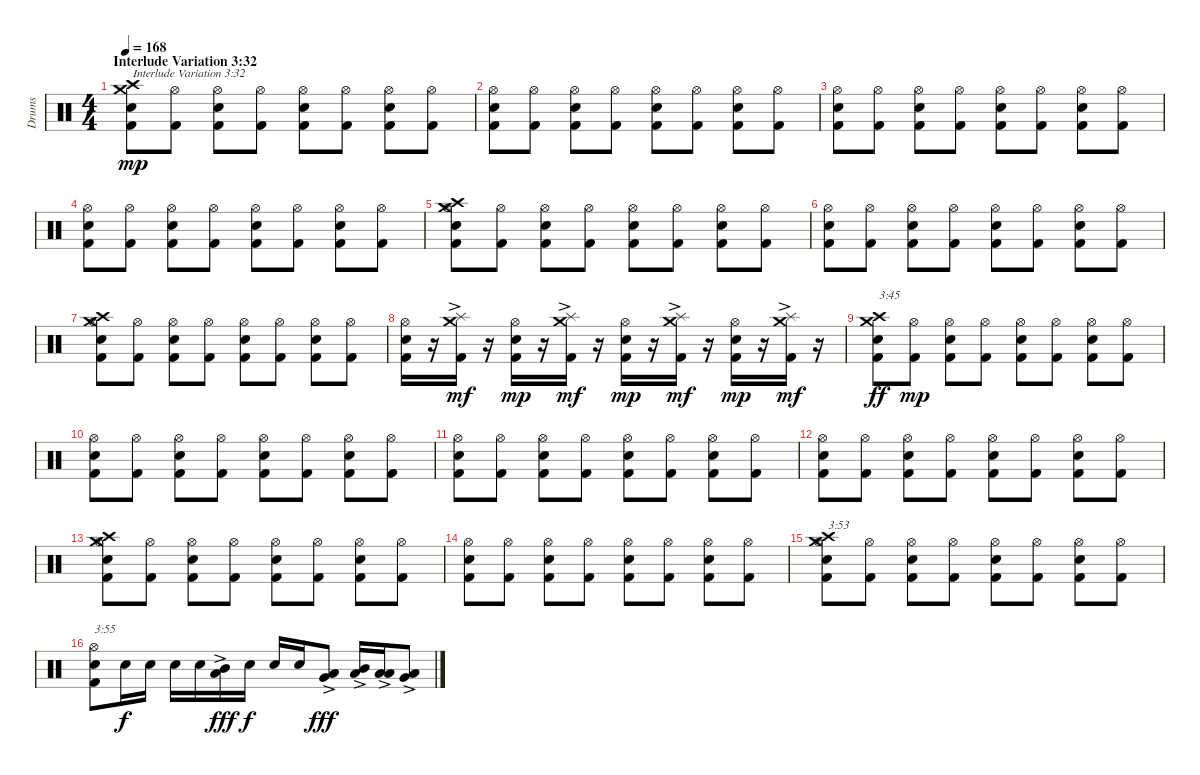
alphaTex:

\track ("Drums" "Drums") {instrument percussion}
\staff {score}
\articulation defaults
\ts (4 4)
\section ("" "Interlude Variation 3:32")
\tempo 168
\clef neutral
\ks c
("Kick (hit) 2" "Electric Snare (hit)" "Crash medium (hit)" "Crash high (hit)").8{txt "Interlude Variation 3:32" dy mp} ("Kick (hit) 2" "Hi-Hat (open)").8 ("Kick (hit) 2" "Electric Snare (hit)" "Hi-Hat (open)").8 ("Kick (hit) 2" "Hi-Hat (open)").8 ("Kick (hit) 2" "Electric Snare (hit)" "Hi-Hat (open)").8 ("Kick (hit) 2" "Hi-Hat (open)").8 ("Kick (hit) 2" "Electric Snare (hit)" "Hi-Hat (open)").8 ("Kick (hit) 2" "Hi-Hat (open)").8 |
("Kick (hit) 2" "Electric Snare (hit)" "Hi-Hat (open)").8 ("Kick (hit) 2" "Hi-Hat (open)").8 ("Kick (hit) 2" "Electric Snare (hit)" "Hi-Hat (open)").8 ("Kick (hit) 2" "Hi-Hat (open)").8 ("Kick (hit) 2" "Electric Snare (hit)" "Hi-Hat (open)").8 ("Kick (hit) 2" "Hi-Hat (open)").8 ("Kick (hit) 2" "Electric Snare (hit)" "Hi-Hat (open)").8 ("Kick (hit) 2" "Hi-Hat (open)").8 |
("Kick (hit) 2" "Electric Snare (hit)" "Hi-Hat (open)").8 ("Kick (hit) 2" "Hi-Hat (open)").8 ("Kick (hit) 2" "Electric Snare (hit)" "Hi-Hat (open)").8 ("Kick (hit) 2" "Hi-Hat (open)").8 ("Kick (hit) 2" "Electric Snare (hit)" "Hi-Hat (open)").8 ("Kick (hit) 2" "Hi-Hat (open)").8 ("Kick (hit) 2" "Electric Snare (hit)" "Hi-Hat (open)").8 ("Kick (hit) 2" "Hi-Hat (open)").8 |
("Kick (hit) 2" "Electric Snare (hit)" "Hi-Hat (open)").8 ("Kick (hit) 2" "Hi-Hat (open)").8 ("Kick (hit) 2" "Electric Snare (hit)" "Hi-Hat (open)").8 ("Kick (hit) 2" "Hi-Hat (open)").8 ("Kick (hit) 2" "Electric Snare (hit)" "Hi-Hat (open)").8 ("Kick (hit) 2" "Hi-Hat (open)").8 ("Kick (hit) 2" "Electric Snare (hit)" "Hi-Hat (open)").8 ("Kick (hit) 2" "Hi-Hat (open)").8 |
("Kick (hit) 2" "Electric Snare (hit)" "Hi-Hat (open)" "Crash medium (hit)" "Crash high (hit)").8 ("Kick (hit) 2" "Hi-Hat (open)").8 ("Kick (hit) 2" "Electric Snare (hit)" "Hi-Hat (open)").8 ("Kick (hit) 2" "Hi-Hat (open)").8 ("Kick (hit) 2" "Electric Snare (hit)" "Hi-Hat (open)").8 ("Kick (hit) 2" "Hi-Hat (open)").8 ("Kick (hit) 2" "Electric Snare (hit)" "Hi-Hat (open)").8 ("Kick (hit) 2" "Hi-Hat (open)").8 |
("Kick (hit) 2" "Electric Snare (hit)" "Hi-Hat (open)").8 ("Kick (hit) 2" "Hi-Hat (open)").8 ("Kick (hit) 2" "Electric Snare (hit)" "Hi-Hat (open)").8 ("Kick (hit) 2" "Hi-Hat (open)").8 ("Kick (hit) 2" "Electric Snare (hit)" "Hi-Hat (open)").8 ("Kick (hit) 2" "Hi-Hat (open)").8 ("Kick (hit) 2" "Electric Snare (hit)" "Hi-Hat (open)").8 ("Kick (hit) 2" "Hi-Hat (open)").8 |
("Kick (hit) 2" "Electric Snare (hit)" "Hi-Hat (open)" "Crash medium (hit)" "Crash high (hit)").8 ("Kick (hit) 2" "Hi-Hat (open)").8 ("Kick (hit) 2" "Electric Snare (hit)" "Hi-Hat (open)").8 ("Kick (hit) 2" "Hi-Hat (open)").8 ("Kick (hit) 2" "Electric Snare (hit)" "Hi-Hat (open)").8 ("Kick (hit) 2" "Hi-Hat (open)").8 ("Kick (hit) 2" "Electric Snare (hit)" "Hi-Hat (open)").8 ("Kick (hit) 2" "Hi-Hat (open)").8 |
("Kick (hit) 2" "Electric Snare (hit)" "Hi-Hat (open)").16 r.16 ("Kick (hit) 2" "Crash medium (hit)" "Splash (hit)"{ac}).16{dy mf} r.16 ("Kick (hit) 2" "Electric Snare (hit)" "Hi-Hat (open)").16{dy mp} r.16 ("Kick (hit) 2" "Crash medium (hit)" "Splash (hit)"{ac}).16{dy mf} r.16 ("Kick (hit) 2" "Electric Snare (hit)" "Hi-Hat (open)").16{dy mp} r.16 ("Kick (hit) 2" "Crash medium (hit)" "Splash (hit)"{ac}).16{dy mf} r.16 ("Kick (hit) 2" "Electric Snare (hit)" "Hi-Hat (open)").16{dy mp} r.16 ("Kick (hit) 2" "Crash medium (hit)" "Splash (hit)"{ac}).16{dy mf} r.16 |
("Kick (hit) 2" "Electric Snare (hit)" "Crash medium (hit)" "Crash high (hit)").8{txt "3:45" dy ff} ("Kick (hit) 2" "Hi-Hat (open)").8{dy mp} ("Kick (hit) 2" "Electric Snare (hit)" "Hi-Hat (open)").8 ("Kick (hit) 2" "Hi-Hat (open)").8 ("Kick (hit) 2" "Electric Snare (hit)" "Hi-Hat (open)").8 ("Kick (hit) 2" "Hi-Hat (open)").8 ("Kick (hit) 2" "Electric Snare (hit)" "Hi-Hat (open)").8 ("Kick (hit) 2" "Hi-Hat (open)").8 |
("Kick (hit) 2" "Electric Snare (hit)" "Hi-Hat (open)").8 ("Kick (hit) 2" "Hi-Hat (open)").8 ("Kick (hit) 2" "Electric Snare (hit)" "Hi-Hat (open)").8 ("Kick (hit) 2" "Hi-Hat (open)").8 ("Kick (hit) 2" "Electric Snare (hit)" "Hi-Hat (open)").8 ("Kick (hit) 2" "Hi-Hat (open)").8 ("Kick (hit) 2" "Electric Snare (hit)" "Hi-Hat (open)").8 ("Kick (hit) 2" "Hi-Hat (open)").8 |
("Kick (hit) 2" "Electric Snare (hit)" "Hi-Hat (open)").8 ("Kick (hit) 2" "Hi-Hat (open)").8 ("Kick (hit) 2" "Electric Snare (hit)" "Hi-Hat (open)").8 ("Kick (hit) 2" "Hi-Hat (open)").8 ("Kick (hit) 2" "Electric Snare (hit)" "Hi-Hat (open)").8 ("Kick (hit) 2" "Hi-Hat (open)").8 ("Kick (hit) 2" "Electric Snare (hit)" "Hi-Hat (open)").8 ("Kick (hit) 2" "Hi-Hat (open)").8 |
("Kick (hit) 2" "Electric Snare (hit)" "Hi-Hat (open)").8 ("Kick (hit) 2" "Hi-Hat (open)").8 ("Kick (hit) 2" "Electric Snare (hit)" "Hi-Hat (open)").8 ("Kick (hit) 2" "Hi-Hat (open)").8 ("Kick (hit) 2" "Electric Snare (hit)" "Hi-Hat (open)").8 ("Kick (hit) 2" "Hi-Hat (open)").8 ("Kick (hit) 2" "Electric Snare (hit)" "Hi-Hat (open)").8 ("Kick (hit) 2" "Hi-Hat (open)").8 |
("Kick (hit) 2" "Electric Snare (hit)" "Hi-Hat (open)" "Crash medium (hit)" "Crash high (hit)").8 ("Kick (hit) 2" "Hi-Hat (open)").8 ("Kick (hit) 2" "Electric Snare (hit)" "Hi-Hat (open)").8 ("Kick (hit) 2" "Hi-Hat (open)").8 ("Kick (hit) 2" "Electric Snare (hit)" "Hi-Hat (open)").8 ("Kick (hit) 2" "Hi-Hat (open)").8 ("Kick (hit) 2" "Electric Snare (hit)" "Hi-Hat (open)").8 ("Kick (hit) 2" "Hi-Hat (open)").8 |
("Kick (hit) 2" "Electric Snare (hit)" "Hi-Hat (open)").8 ("Kick (hit) 2" "Hi-Hat (open)").8 ("Kick (hit) 2" "Electric Snare (hit)" "Hi-Hat (open)").8 ("Kick (hit) 2" "Hi-Hat (open)").8 ("Kick (hit) 2" "Electric Snare (hit)" "Hi-Hat (open)").8 ("Kick (hit) 2" "Hi-Hat (open)").8 ("Kick (hit) 2" "Electric Snare (hit)" "Hi-Hat (open)").8 ("Kick (hit) 2" "Hi-Hat (open)").8 |
("Kick (hit) 2" "Electric Snare (hit)" "Hi-Hat (open)" "Crash medium (hit)" "Crash high (hit)").8{txt "3:53"} ("Kick (hit) 2" "Hi-Hat (open)").8 ("Kick (hit) 2" "Electric Snare (hit)" "Hi-Hat (open)").8 ("Kick (hit) 2" "Hi-Hat (open)").8 ("Kick (hit) 2" "Electric Snare (hit)" "Hi-Hat (open)").8 ("Kick (hit) 2" "Hi-Hat (open)").8 ("Kick (hit) 2" "Electric Snare (hit)" "Hi-Hat (open)").8 ("Kick (hit) 2" "Hi-Hat (open)").8 |
("Kick (hit) 2" "Electric Snare (hit)" "Hi-Hat (open)").8{txt "3:55"} "Electric Snare (hit)".16{dy f} "Electric Snare (hit)".16 "Electric Snare (hit)".16 "Electric Snare (hit)".16 ("Mid Tom (hit)"{ac} "Low Tom (hit)"{ac}).16{dy fff} "Electric Snare (hit)".16{dy f} "Electric Snare (hit)".16 "Electric Snare (hit)".16 ("Very Low Tom (hit)"{ac} "Low Tom (hit)"{ac}).8{dy fff} ("Mid Tom (hit)"{ac} "Low Tom (hit)"{ac}).16 ("Low Tom (hit)"{ac} "Low Tom (hit)"{ac}).16 ("Very Low Tom (hit)"{ac} "Low Tom (hit)"{ac}).8
